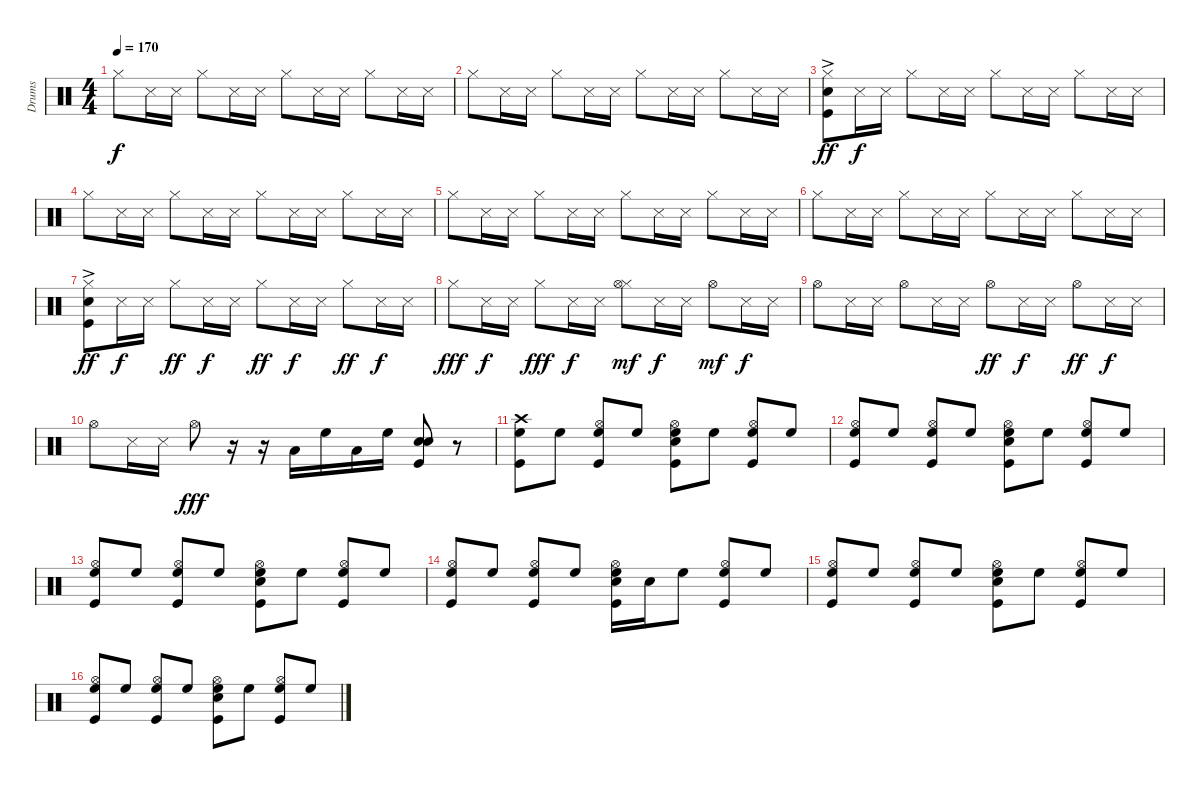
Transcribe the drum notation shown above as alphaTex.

\track ("Drums" "Drums") {instrument percussion}
\staff {score}
\articulation defaults
\ts (4 4)
\tempo 170
\clef neutral
\ks c "Hi-Hat (closed)".8{dy f} "Snare (side stick) 3".16 "Snare (side stick) 3".16 "Hi-Hat (closed)".8 "Snare (side stick) 3".16 "Snare (side stick) 3".16 "Hi-Hat (closed)".8 "Snare (side stick) 3".16 "Snare (side stick) 3".16 "Hi-Hat (closed)".8 "Snare (side stick) 3".16 "Snare (side stick) 3".16
|
"Hi-Hat (closed)".8 "Snare (side stick) 3".16 "Snare (side stick) 3".16 "Hi-Hat (closed)".8 "Snare (side stick) 3".16 "Snare (side stick) 3".16 "Hi-Hat (closed)".8 "Snare (side stick) 3".16 "Snare (side stick) 3".16 "Hi-Hat (closed)".8 "Snare (side stick) 3".16 "Snare (side stick) 3".16 |
("Hi-Hat (closed)" "Snare (hit) 2"{ac} "Kick (hit)").8{dy ff} "Snare (side stick) 3".16{dy f} "Snare (side stick) 3".16 "Hi-Hat (closed)".8 "Snare (side stick) 3".16 "Snare (side stick) 3".16 "Hi-Hat (closed)".8 "Snare (side stick) 3".16 "Snare (side stick) 3".16 "Hi-Hat (closed)".8 "Snare (side stick) 3".16 "Snare (side stick) 3".16 |
"Hi-Hat (closed)".8 "Snare (side stick) 3".16 "Snare (side stick) 3".16 "Hi-Hat (closed)".8 "Snare (side stick) 3".16 "Snare (side stick) 3".16 "Hi-Hat (closed)".8 "Snare (side stick) 3".16 "Snare (side stick) 3".16 "Hi-Hat (closed)".8 "Snare (side stick) 3".16 "Snare (side stick) 3".16 |
"Hi-Hat (closed)".8 "Snare (side stick) 3".16 "Snare (side stick) 3".16 "Hi-Hat (closed)".8 "Snare (side stick) 3".16 "Snare (side stick) 3".16 "Hi-Hat (closed)".8 "Snare (side stick) 3".16 "Snare (side stick) 3".16 "Hi-Hat (closed)".8 "Snare (side stick) 3".16 "Snare (side stick) 3".16 |
"Hi-Hat (closed)".8 "Snare (side stick) 3".16 "Snare (side stick) 3".16 "Hi-Hat (closed)".8 "Snare (side stick) 3".16 "Snare (side stick) 3".16 "Hi-Hat (closed)".8 "Snare (side stick) 3".16 "Snare (side stick) 3".16 "Hi-Hat (closed)".8 "Snare (side stick) 3".16 "Snare (side stick) 3".16 |
("Hi-Hat (closed)" "Snare (hit) 2"{ac} "Kick (hit)").8{dy ff} "Snare (side stick) 3".16{dy f} "Snare (side stick) 3".16 "Hi-Hat (closed)".8{dy ff} "Snare (side stick) 3".16{dy f} "Snare (side stick) 3".16 "Hi-Hat (closed)".8{dy ff} "Snare (side stick) 3".16{dy f} "Snare (side stick) 3".16 "Hi-Hat (closed)".8{dy ff} "Snare (side stick) 3".16{dy f} "Snare (side stick) 3".16 |
"Hi-Hat (closed)".8{dy fff} "Snare (side stick) 3".16{dy f} "Snare (side stick) 3".16 "Hi-Hat (closed)".8{dy fff} "Snare (side stick) 3".16{dy f} "Snare (side stick) 3".16 ("Hi-Hat (closed)" "Hi-Hat (open)").8{dy mf} "Snare (side stick) 3".16{dy f} "Snare (side stick) 3".16 "Hi-Hat (open)".8{dy mf} "Snare (side stick) 3".16{dy f} "Snare (side stick) 3".16 |
"Hi-Hat (open)".8 "Snare (side stick) 3".16 "Snare (side stick) 3".16 "Hi-Hat (open)".8 "Snare (side stick) 3".16 "Snare (side stick) 3".16 "Hi-Hat (open)".8{dy ff} "Snare (side stick) 3".16{dy f} "Snare (side stick) 3".16 "Hi-Hat (open)".8{dy ff} "Snare (side stick) 3".16{dy f} "Snare (side stick) 3".16 |
"Hi-Hat (open)".8 "Snare (side stick) 3".16 "Snare (side stick) 3".16 "Hi-Hat (open)".8{dy fff} r.16 r.16 "Low Tom (hit)".16 "High Floor Tom (hit)".16 "Low Tom (hit)".16 "High Floor Tom (hit)".16 ("Snare (hit) 2" "Snare (hit) 2" "Kick (hit)").8 r.8 |
("Crash high (hit)" "High Floor Tom (hit)" "Kick (hit)").8 "High Floor Tom (hit)".8 ("Hi-Hat (open)" "High Floor Tom (hit)" "Kick (hit)").8 "High Floor Tom (hit)".8 ("Hi-Hat (open)" "Snare (hit) 2" "High Floor Tom (hit)" "Kick (hit)").8 "High Floor Tom (hit)".8 ("Hi-Hat (open)" "High Floor Tom (hit)" "Kick (hit)").8 "High Floor Tom (hit)".8 |
("Hi-Hat (open)" "High Floor Tom (hit)" "Kick (hit)").8 "High Floor Tom (hit)".8 ("Hi-Hat (open)" "High Floor Tom (hit)" "Kick (hit)").8 "High Floor Tom (hit)".8 ("Hi-Hat (open)" "Snare (hit) 2" "High Floor Tom (hit)" "Kick (hit)").8 "High Floor Tom (hit)".8 ("Hi-Hat (open)" "High Floor Tom (hit)" "Kick (hit)").8 "High Floor Tom (hit)".8 |
("Hi-Hat (open)" "High Floor Tom (hit)" "Kick (hit)").8 "High Floor Tom (hit)".8 ("Hi-Hat (open)" "High Floor Tom (hit)" "Kick (hit)").8 "High Floor Tom (hit)".8 ("Hi-Hat (open)" "Snare (hit) 2" "High Floor Tom (hit)" "Kick (hit)").8 "High Floor Tom (hit)".8 ("Hi-Hat (open)" "High Floor Tom (hit)" "Kick (hit)").8 "High Floor Tom (hit)".8 |
("Hi-Hat (open)" "High Floor Tom (hit)" "Kick (hit)").8 "High Floor Tom (hit)".8 ("Hi-Hat (open)" "High Floor Tom (hit)" "Kick (hit)").8 "High Floor Tom (hit)".8 ("Hi-Hat (open)" "Snare (hit) 2" "High Floor Tom (hit)" "Kick (hit)").16 "Snare (hit) 2".16 "High Floor Tom (hit)".8 ("Hi-Hat (open)" "High Floor Tom (hit)" "Kick (hit)").8 "High Floor Tom (hit)".8 |
("Hi-Hat (open)" "High Floor Tom (hit)" "Kick (hit)").8 "High Floor Tom (hit)".8 ("Hi-Hat (open)" "High Floor Tom (hit)" "Kick (hit)").8 "High Floor Tom (hit)".8 ("Hi-Hat (open)" "Snare (hit) 2" "High Floor Tom (hit)" "Kick (hit)").8 "High Floor Tom (hit)".8 ("Hi-Hat (open)" "High Floor Tom (hit)" "Kick (hit)").8 "High Floor Tom (hit)".8 |
("Hi-Hat (open)" "High Floor Tom (hit)" "Kick (hit)").8 "High Floor Tom (hit)".8 ("Hi-Hat (open)" "High Floor Tom (hit)" "Kick (hit)").8 "High Floor Tom (hit)".8 ("Hi-Hat (open)" "Snare (hit) 2" "High Floor Tom (hit)" "Kick (hit)").8 "High Floor Tom (hit)".8 ("Hi-Hat (open)" "High Floor Tom (hit)" "Kick (hit)").8 "High Floor Tom (hit)".8
